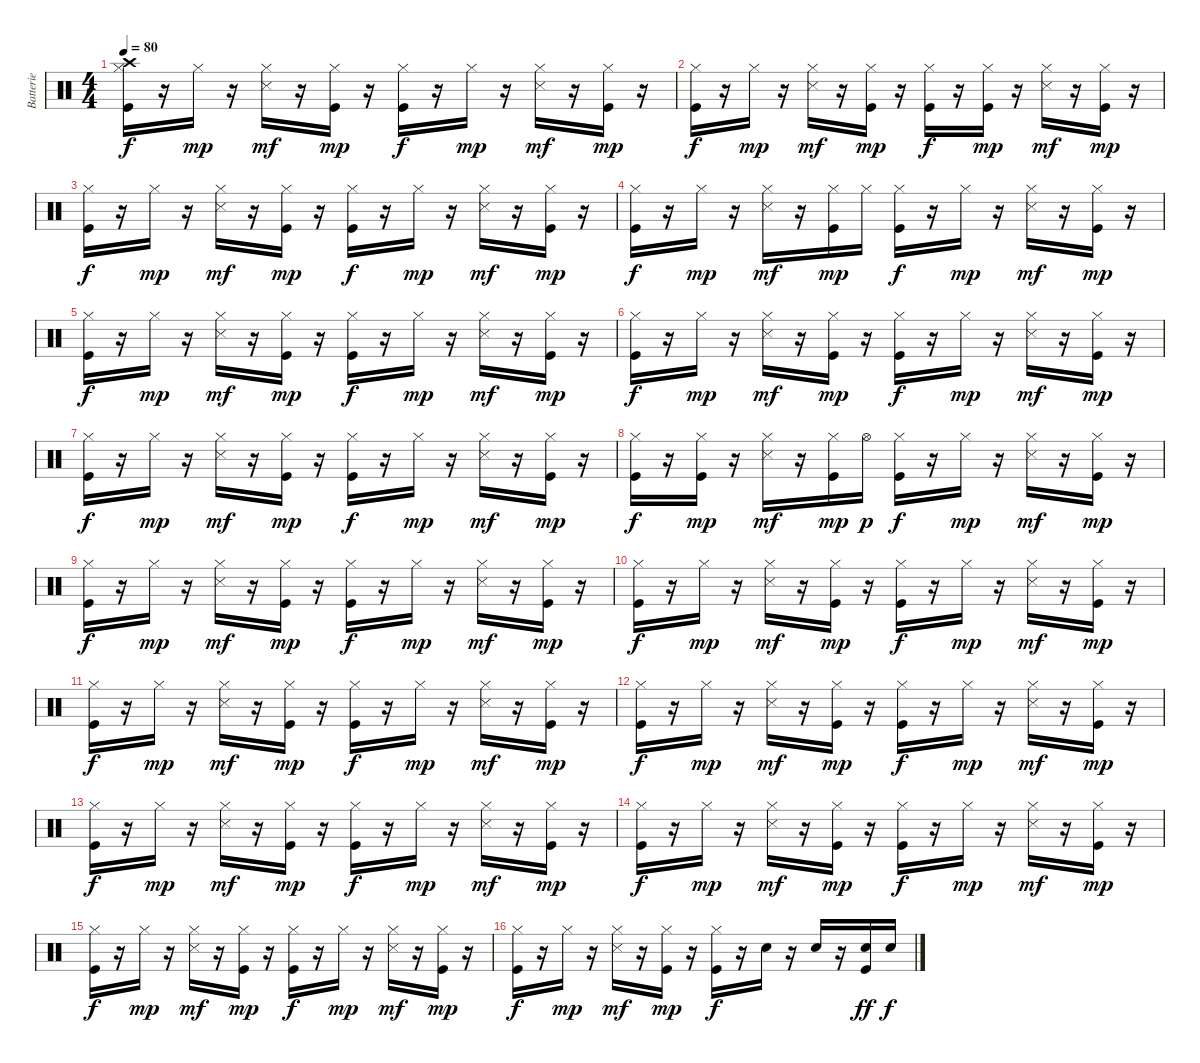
\track ("Batterie" "Batterie") {instrument percussion}
\staff {score}
\articulation defaults
\ts (4 4)
\tempo 80
\clef neutral
\ks c
("Kick (hit)" "Hi-Hat (closed)" "Crash high (hit)").16{dy f} r.16 "Hi-Hat (closed)".16{dy mp} r.16 ("Hi-Hat (closed)" "Snare (side stick) 3").16{dy mf} r.16 ("Kick (hit)" "Hi-Hat (closed)").16{dy mp} r.16 ("Kick (hit)" "Hi-Hat (closed)").16{dy f} r.16 "Hi-Hat (closed)".16{dy mp} r.16 ("Hi-Hat (closed)" "Snare (side stick) 3").16{dy mf} r.16 ("Kick (hit)" "Hi-Hat (closed)").16{dy mp} r.16 |
("Kick (hit)" "Hi-Hat (closed)").16{dy f} r.16 "Hi-Hat (closed)".16{dy mp} r.16 ("Hi-Hat (closed)" "Snare (side stick) 3").16{dy mf} r.16 ("Kick (hit)" "Hi-Hat (closed)").16{dy mp} r.16 ("Kick (hit)" "Hi-Hat (closed)").16{dy f} r.16 ("Kick (hit)" "Hi-Hat (closed)").16{dy mp} r.16 ("Hi-Hat (closed)" "Snare (side stick) 3").16{dy mf} r.16 ("Kick (hit)" "Hi-Hat (closed)").16{dy mp} r.16 |
("Kick (hit)" "Hi-Hat (closed)").16{dy f} r.16 "Hi-Hat (closed)".16{dy mp} r.16 ("Hi-Hat (closed)" "Snare (side stick) 3").16{dy mf} r.16 ("Kick (hit)" "Hi-Hat (closed)").16{dy mp} r.16 ("Kick (hit)" "Hi-Hat (closed)").16{dy f} r.16 "Hi-Hat (closed)".16{dy mp} r.16 ("Hi-Hat (closed)" "Snare (side stick) 3").16{dy mf} r.16 ("Kick (hit)" "Hi-Hat (closed)").16{dy mp} r.16 |
("Kick (hit)" "Hi-Hat (closed)").16{dy f} r.16 "Hi-Hat (closed)".16{dy mp} r.16 ("Hi-Hat (closed)" "Snare (side stick) 3").16{dy mf} r.16 ("Kick (hit)" "Hi-Hat (closed)").16{dy mp} "Hi-Hat (closed)".16 ("Kick (hit)" "Hi-Hat (closed)").16{dy f} r.16 "Hi-Hat (closed)".16{dy mp} r.16 ("Hi-Hat (closed)" "Snare (side stick) 3").16{dy mf} r.16 ("Kick (hit)" "Hi-Hat (closed)").16{dy mp} r.16 |
("Kick (hit)" "Hi-Hat (closed)").16{dy f} r.16 "Hi-Hat (closed)".16{dy mp} r.16 ("Hi-Hat (closed)" "Snare (side stick) 3").16{dy mf} r.16 ("Kick (hit)" "Hi-Hat (closed)").16{dy mp} r.16 ("Kick (hit)" "Hi-Hat (closed)").16{dy f} r.16 "Hi-Hat (closed)".16{dy mp} r.16 ("Hi-Hat (closed)" "Snare (side stick) 3").16{dy mf} r.16 ("Kick (hit)" "Hi-Hat (closed)").16{dy mp} r.16 |
("Kick (hit)" "Hi-Hat (closed)").16{dy f} r.16 "Hi-Hat (closed)".16{dy mp} r.16 ("Hi-Hat (closed)" "Snare (side stick) 3").16{dy mf} r.16 ("Kick (hit)" "Hi-Hat (closed)").16{dy mp} r.16 ("Kick (hit)" "Hi-Hat (closed)").16{dy f} r.16 "Hi-Hat (closed)".16{dy mp} r.16 ("Hi-Hat (closed)" "Snare (side stick) 3").16{dy mf} r.16 ("Kick (hit)" "Hi-Hat (closed)").16{dy mp} r.16 |
("Kick (hit)" "Hi-Hat (closed)").16{dy f} r.16 "Hi-Hat (closed)".16{dy mp} r.16 ("Hi-Hat (closed)" "Snare (side stick) 3").16{dy mf} r.16 ("Kick (hit)" "Hi-Hat (closed)").16{dy mp} r.16 ("Kick (hit)" "Hi-Hat (closed)").16{dy f} r.16 "Hi-Hat (closed)".16{dy mp} r.16 ("Hi-Hat (closed)" "Snare (side stick) 3").16{dy mf} r.16 ("Kick (hit)" "Hi-Hat (closed)").16{dy mp} r.16 |
("Kick (hit)" "Hi-Hat (closed)").16{dy f} r.16 ("Kick (hit)" "Hi-Hat (closed)").16{dy mp} r.16 ("Hi-Hat (closed)" "Snare (side stick) 3").16{dy mf} r.16 ("Kick (hit)" "Hi-Hat (closed)").16{dy mp} "Hi-Hat (open)".16{dy p} ("Kick (hit)" "Hi-Hat (closed)").16{dy f} r.16 "Hi-Hat (closed)".16{dy mp} r.16 ("Hi-Hat (closed)" "Snare (side stick) 3").16{dy mf} r.16 ("Kick (hit)" "Hi-Hat (closed)").16{dy mp} r.16 |
("Kick (hit)" "Hi-Hat (closed)").16{dy f} r.16 "Hi-Hat (closed)".16{dy mp} r.16 ("Hi-Hat (closed)" "Snare (side stick) 3").16{dy mf} r.16 ("Kick (hit)" "Hi-Hat (closed)").16{dy mp} r.16 ("Kick (hit)" "Hi-Hat (closed)").16{dy f} r.16 "Hi-Hat (closed)".16{dy mp} r.16 ("Hi-Hat (closed)" "Snare (side stick) 3").16{dy mf} r.16 ("Kick (hit)" "Hi-Hat (closed)").16{dy mp} r.16 |
("Kick (hit)" "Hi-Hat (closed)").16{dy f} r.16 "Hi-Hat (closed)".16{dy mp} r.16 ("Hi-Hat (closed)" "Snare (side stick) 3").16{dy mf} r.16 ("Kick (hit)" "Hi-Hat (closed)").16{dy mp} r.16 ("Kick (hit)" "Hi-Hat (closed)").16{dy f} r.16 "Hi-Hat (closed)".16{dy mp} r.16 ("Hi-Hat (closed)" "Snare (side stick) 3").16{dy mf} r.16 ("Kick (hit)" "Hi-Hat (closed)").16{dy mp} r.16 |
("Kick (hit)" "Hi-Hat (closed)").16{dy f} r.16 "Hi-Hat (closed)".16{dy mp} r.16 ("Hi-Hat (closed)" "Snare (side stick) 3").16{dy mf} r.16 ("Kick (hit)" "Hi-Hat (closed)").16{dy mp} r.16 ("Kick (hit)" "Hi-Hat (closed)").16{dy f} r.16 "Hi-Hat (closed)".16{dy mp} r.16 ("Hi-Hat (closed)" "Snare (side stick) 3").16{dy mf} r.16 ("Kick (hit)" "Hi-Hat (closed)").16{dy mp} r.16 |
("Kick (hit)" "Hi-Hat (closed)").16{dy f} r.16 "Hi-Hat (closed)".16{dy mp} r.16 ("Hi-Hat (closed)" "Snare (side stick) 3").16{dy mf} r.16 ("Kick (hit)" "Hi-Hat (closed)").16{dy mp} r.16 ("Kick (hit)" "Hi-Hat (closed)").16{dy f} r.16 "Hi-Hat (closed)".16{dy mp} r.16 ("Hi-Hat (closed)" "Snare (side stick) 3").16{dy mf} r.16 ("Kick (hit)" "Hi-Hat (closed)").16{dy mp} r.16 |
("Kick (hit)" "Hi-Hat (closed)").16{dy f} r.16 "Hi-Hat (closed)".16{dy mp} r.16 ("Hi-Hat (closed)" "Snare (side stick) 3").16{dy mf} r.16 ("Kick (hit)" "Hi-Hat (closed)").16{dy mp} r.16 ("Kick (hit)" "Hi-Hat (closed)").16{dy f} r.16 "Hi-Hat (closed)".16{dy mp} r.16 ("Hi-Hat (closed)" "Snare (side stick) 3").16{dy mf} r.16 ("Kick (hit)" "Hi-Hat (closed)").16{dy mp} r.16 |
("Kick (hit)" "Hi-Hat (closed)").16{dy f} r.16 "Hi-Hat (closed)".16{dy mp} r.16 ("Hi-Hat (closed)" "Snare (side stick) 3").16{dy mf} r.16 ("Kick (hit)" "Hi-Hat (closed)").16{dy mp} r.16 ("Kick (hit)" "Hi-Hat (closed)").16{dy f} r.16 "Hi-Hat (closed)".16{dy mp} r.16 ("Hi-Hat (closed)" "Snare (side stick) 3").16{dy mf} r.16 ("Kick (hit)" "Hi-Hat (closed)").16{dy mp} r.16 |
("Kick (hit)" "Hi-Hat (closed)").16{dy f} r.16 "Hi-Hat (closed)".16{dy mp} r.16 ("Hi-Hat (closed)" "Snare (side stick) 3").16{dy mf} r.16 ("Kick (hit)" "Hi-Hat (closed)").16{dy mp} r.16 ("Kick (hit)" "Hi-Hat (closed)").16{dy f} r.16 "Hi-Hat (closed)".16{dy mp} r.16 ("Hi-Hat (closed)" "Snare (side stick) 3").16{dy mf} r.16 ("Kick (hit)" "Hi-Hat (closed)").16{dy mp} r.16 |
("Kick (hit)" "Hi-Hat (closed)").16{dy f} r.16 "Hi-Hat (closed)".16{dy mp} r.16 ("Hi-Hat (closed)" "Snare (side stick) 3").16{dy mf} r.16 ("Kick (hit)" "Hi-Hat (closed)").16{dy mp} r.16 ("Kick (hit)" "Hi-Hat (closed)").16{dy f} r.16 "Snare (hit) 2".16 r.16 "Snare (hit) 2".16 r.16 ("Kick (hit)" "Snare (hit) 2").16{dy ff} "Snare (hit) 2".16{dy f}
